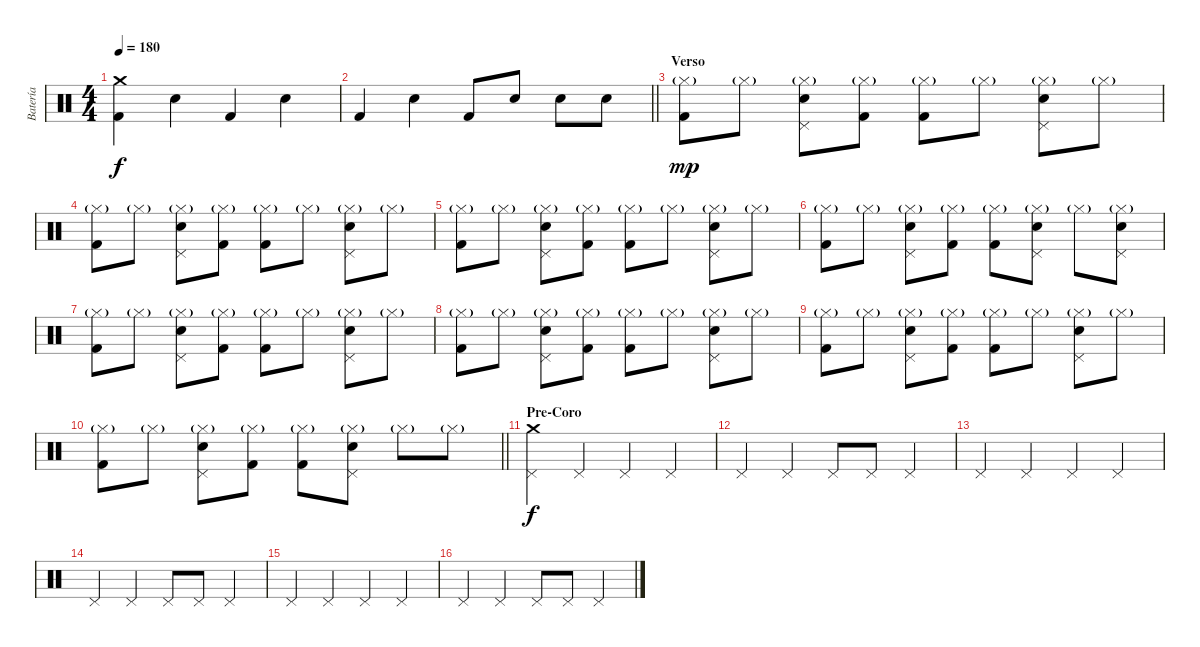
\track ("Batería" "Batería") {instrument percussion}
\staff {score}
\articulation defaults
\ts (4 4)
\tempo 180
\clef neutral
\ks c
("Kick (hit) 2" "Crash medium (hit)").4{dy f} "Electric Snare (hit)".4 "Kick (hit) 2".4 "Electric Snare (hit)".4 |
\barLineRight lightlight "Kick (hit) 2".4 "Electric Snare (hit)".4 "Kick (hit) 2".8 "Electric Snare (hit)".8 "Electric Snare (hit)".8 "Electric Snare (hit)".8
|
\section ("" "Verso")
("Hi-Hat (closed)"{g} "Kick (hit) 2").8{dy mp} "Hi-Hat (closed)"{g}.8 ("Hi-Hat (closed)"{g} "Electric Snare (hit)" "Pedal Hi-Hat (hit)").8 ("Hi-Hat (closed)"{g} "Kick (hit) 2").8 ("Hi-Hat (closed)"{g} "Kick (hit) 2").8 "Hi-Hat (closed)"{g}.8 ("Hi-Hat (closed)"{g} "Electric Snare (hit)" "Pedal Hi-Hat (hit)").8 "Hi-Hat (closed)"{g}.8 |
("Hi-Hat (closed)"{g} "Kick (hit) 2").8 "Hi-Hat (closed)"{g}.8 ("Hi-Hat (closed)"{g} "Electric Snare (hit)" "Pedal Hi-Hat (hit)").8 ("Hi-Hat (closed)"{g} "Kick (hit) 2").8 ("Hi-Hat (closed)"{g} "Kick (hit) 2").8 "Hi-Hat (closed)"{g}.8 ("Hi-Hat (closed)"{g} "Electric Snare (hit)" "Pedal Hi-Hat (hit)").8 "Hi-Hat (closed)"{g}.8 |
("Hi-Hat (closed)"{g} "Kick (hit) 2").8 "Hi-Hat (closed)"{g}.8 ("Hi-Hat (closed)"{g} "Electric Snare (hit)" "Pedal Hi-Hat (hit)").8 ("Hi-Hat (closed)"{g} "Kick (hit) 2").8 ("Hi-Hat (closed)"{g} "Kick (hit) 2").8 "Hi-Hat (closed)"{g}.8 ("Hi-Hat (closed)"{g} "Electric Snare (hit)" "Pedal Hi-Hat (hit)").8 "Hi-Hat (closed)"{g}.8 |
("Hi-Hat (closed)"{g} "Kick (hit) 2").8 "Hi-Hat (closed)"{g}.8 ("Hi-Hat (closed)"{g} "Electric Snare (hit)" "Pedal Hi-Hat (hit)").8 ("Hi-Hat (closed)"{g} "Kick (hit) 2").8 ("Hi-Hat (closed)"{g} "Kick (hit) 2").8 ("Hi-Hat (closed)"{g} "Electric Snare (hit)" "Pedal Hi-Hat (hit)").8 "Hi-Hat (closed)"{g}.8 ("Hi-Hat (closed)"{g} "Electric Snare (hit)" "Pedal Hi-Hat (hit)").8 |
("Hi-Hat (closed)"{g} "Kick (hit) 2").8 "Hi-Hat (closed)"{g}.8 ("Hi-Hat (closed)"{g} "Electric Snare (hit)" "Pedal Hi-Hat (hit)").8 ("Hi-Hat (closed)"{g} "Kick (hit) 2").8 ("Hi-Hat (closed)"{g} "Kick (hit) 2").8 "Hi-Hat (closed)"{g}.8 ("Hi-Hat (closed)"{g} "Electric Snare (hit)" "Pedal Hi-Hat (hit)").8 "Hi-Hat (closed)"{g}.8 |
("Hi-Hat (closed)"{g} "Kick (hit) 2").8 "Hi-Hat (closed)"{g}.8 ("Hi-Hat (closed)"{g} "Electric Snare (hit)" "Pedal Hi-Hat (hit)").8 ("Hi-Hat (closed)"{g} "Kick (hit) 2").8 ("Hi-Hat (closed)"{g} "Kick (hit) 2").8 "Hi-Hat (closed)"{g}.8 ("Hi-Hat (closed)"{g} "Electric Snare (hit)" "Pedal Hi-Hat (hit)").8 "Hi-Hat (closed)"{g}.8 |
("Hi-Hat (closed)"{g} "Kick (hit) 2").8 "Hi-Hat (closed)"{g}.8 ("Hi-Hat (closed)"{g} "Electric Snare (hit)" "Pedal Hi-Hat (hit)").8 ("Hi-Hat (closed)"{g} "Kick (hit) 2").8 ("Hi-Hat (closed)"{g} "Kick (hit) 2").8 "Hi-Hat (closed)"{g}.8 ("Hi-Hat (closed)"{g} "Electric Snare (hit)" "Pedal Hi-Hat (hit)").8 "Hi-Hat (closed)"{g}.8 |
\barLineRight lightlight
("Hi-Hat (closed)"{g} "Kick (hit) 2").8 "Hi-Hat (closed)"{g}.8 ("Hi-Hat (closed)"{g} "Electric Snare (hit)" "Pedal Hi-Hat (hit)").8 ("Hi-Hat (closed)"{g} "Kick (hit) 2").8 ("Hi-Hat (closed)"{g} "Kick (hit) 2").8 ("Hi-Hat (closed)"{g} "Electric Snare (hit)" "Pedal Hi-Hat (hit)").8 "Hi-Hat (closed)"{g}.8 "Hi-Hat (closed)"{g}.8 |
\section ("" "Pre-Coro")
("Pedal Hi-Hat (hit)" "Crash medium (hit)").4{dy f} "Pedal Hi-Hat (hit)".4 "Pedal Hi-Hat (hit)".4 "Pedal Hi-Hat (hit)".4 |
"Pedal Hi-Hat (hit)".4 "Pedal Hi-Hat (hit)".4 "Pedal Hi-Hat (hit)".8 "Pedal Hi-Hat (hit)".8 "Pedal Hi-Hat (hit)".4 |
"Pedal Hi-Hat (hit)".4 "Pedal Hi-Hat (hit)".4 "Pedal Hi-Hat (hit)".4 "Pedal Hi-Hat (hit)".4 |
"Pedal Hi-Hat (hit)".4 "Pedal Hi-Hat (hit)".4 "Pedal Hi-Hat (hit)".8 "Pedal Hi-Hat (hit)".8 "Pedal Hi-Hat (hit)".4 |
"Pedal Hi-Hat (hit)".4 "Pedal Hi-Hat (hit)".4 "Pedal Hi-Hat (hit)".4 "Pedal Hi-Hat (hit)".4 |
"Pedal Hi-Hat (hit)".4 "Pedal Hi-Hat (hit)".4 "Pedal Hi-Hat (hit)".8 "Pedal Hi-Hat (hit)".8 "Pedal Hi-Hat (hit)".4
